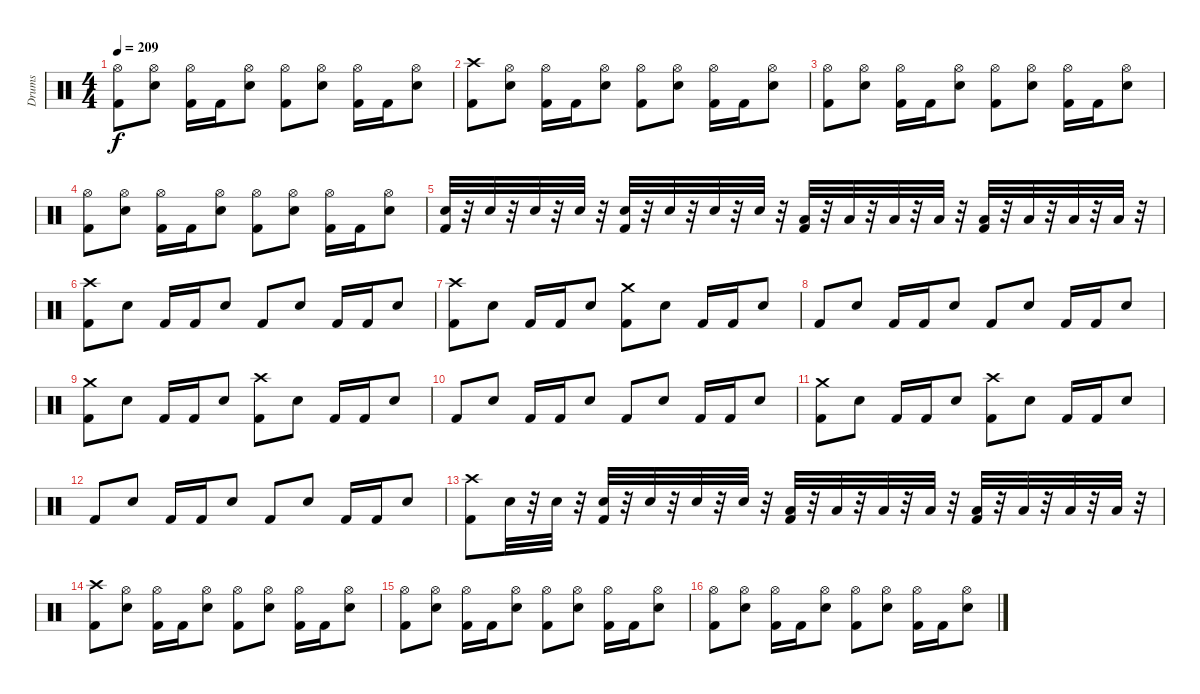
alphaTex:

\track ("Drums" "Drums") {instrument percussion}
\staff {score}
\articulation defaults
\ts (4 4)
\tempo 209
\clef neutral
\ks c
("Kick (hit) 2" "Hi-Hat (open)").8{dy f} ("Hi-Hat (open)" "Electric Snare (hit)").8 ("Kick (hit) 2" "Hi-Hat (open)").16 "Kick (hit) 2".16 ("Hi-Hat (open)" "Electric Snare (hit)").8 ("Kick (hit) 2" "Hi-Hat (open)").8 ("Hi-Hat (open)" "Electric Snare (hit)").8 ("Kick (hit) 2" "Hi-Hat (open)").16 "Kick (hit) 2".16 ("Hi-Hat (open)" "Electric Snare (hit)").8 |
("Crash high (hit)" "Kick (hit) 2").8 ("Hi-Hat (open)" "Electric Snare (hit)").8 ("Kick (hit) 2" "Hi-Hat (open)").16 "Kick (hit) 2".16 ("Hi-Hat (open)" "Electric Snare (hit)").8 ("Kick (hit) 2" "Hi-Hat (open)").8 ("Hi-Hat (open)" "Electric Snare (hit)").8 ("Kick (hit) 2" "Hi-Hat (open)").16 "Kick (hit) 2".16 ("Hi-Hat (open)" "Electric Snare (hit)").8 |
("Kick (hit) 2" "Hi-Hat (open)").8 ("Hi-Hat (open)" "Electric Snare (hit)").8 ("Kick (hit) 2" "Hi-Hat (open)").16 "Kick (hit) 2".16 ("Hi-Hat (open)" "Electric Snare (hit)").8 ("Kick (hit) 2" "Hi-Hat (open)").8 ("Hi-Hat (open)" "Electric Snare (hit)").8 ("Kick (hit) 2" "Hi-Hat (open)").16 "Kick (hit) 2".16 ("Hi-Hat (open)" "Electric Snare (hit)").8 |
("Kick (hit) 2" "Hi-Hat (open)").8 ("Hi-Hat (open)" "Electric Snare (hit)").8 ("Kick (hit) 2" "Hi-Hat (open)").16 "Kick (hit) 2".16 ("Hi-Hat (open)" "Electric Snare (hit)").8 ("Kick (hit) 2" "Hi-Hat (open)").8 ("Hi-Hat (open)" "Electric Snare (hit)").8 ("Kick (hit) 2" "Hi-Hat (open)").16 "Kick (hit) 2".16 ("Hi-Hat (open)" "Electric Snare (hit)").8 |
("Electric Snare (hit)" "Kick (hit) 2").32 r.32 "Electric Snare (hit)".32 r.32 "Electric Snare (hit)".32 r.32 "Electric Snare (hit)".32 r.32 ("Electric Snare (hit)" "Kick (hit) 2").32 r.32 "Electric Snare (hit)".32 r.32 "Electric Snare (hit)".32 r.32 "Electric Snare (hit)".32 r.32 ("Kick (hit) 2" "Low Tom (hit)").32 r.32 "Low Tom (hit)".32 r.32 "Low Tom (hit)".32 r.32 "Low Tom (hit)".32 r.32 ("Kick (hit) 2" "Low Floor Tom (hit)").32 r.32 "Low Floor Tom (hit)".32 r.32 "Low Floor Tom (hit)".32 r.32 "Low Floor Tom (hit)".32 r.32 |
("Crash high (hit)" "Kick (hit) 2").8 "Electric Snare (hit)".8 "Kick (hit) 2".16 "Kick (hit) 2".16 "Electric Snare (hit)".8 "Kick (hit) 2".8 "Electric Snare (hit)".8 "Kick (hit) 2".16 "Kick (hit) 2".16 "Electric Snare (hit)".8 |
("Kick (hit) 2" "Crash high (hit)").8 "Electric Snare (hit)".8 "Kick (hit) 2".16 "Kick (hit) 2".16 "Electric Snare (hit)".8 ("Kick (hit) 2" "Crash medium (hit)").8 "Electric Snare (hit)".8 "Kick (hit) 2".16 "Kick (hit) 2".16 "Electric Snare (hit)".8 |
"Kick (hit) 2".8 "Electric Snare (hit)".8 "Kick (hit) 2".16 "Kick (hit) 2".16 "Electric Snare (hit)".8 "Kick (hit) 2".8 "Electric Snare (hit)".8 "Kick (hit) 2".16 "Kick (hit) 2".16 "Electric Snare (hit)".8 |
("Kick (hit) 2" "Crash medium (hit)").8 "Electric Snare (hit)".8 "Kick (hit) 2".16 "Kick (hit) 2".16 "Electric Snare (hit)".8 ("Kick (hit) 2" "Crash high (hit)").8 "Electric Snare (hit)".8 "Kick (hit) 2".16 "Kick (hit) 2".16 "Electric Snare (hit)".8 |
"Kick (hit) 2".8 "Electric Snare (hit)".8 "Kick (hit) 2".16 "Kick (hit) 2".16 "Electric Snare (hit)".8 "Kick (hit) 2".8 "Electric Snare (hit)".8 "Kick (hit) 2".16 "Kick (hit) 2".16 "Electric Snare (hit)".8 |
("Kick (hit) 2" "Crash medium (hit)").8 "Electric Snare (hit)".8 "Kick (hit) 2".16 "Kick (hit) 2".16 "Electric Snare (hit)".8 ("Kick (hit) 2" "Crash high (hit)").8 "Electric Snare (hit)".8 "Kick (hit) 2".16 "Kick (hit) 2".16 "Electric Snare (hit)".8 |
"Kick (hit) 2".8 "Electric Snare (hit)".8 "Kick (hit) 2".16 "Kick (hit) 2".16 "Electric Snare (hit)".8 "Kick (hit) 2".8 "Electric Snare (hit)".8 "Kick (hit) 2".16 "Kick (hit) 2".16 "Electric Snare (hit)".8 |
("Kick (hit) 2" "Crash high (hit)").8 "Electric Snare (hit)".32 r.32 "Electric Snare (hit)".32 r.32 ("Electric Snare (hit)" "Kick (hit) 2").32 r.32 "Electric Snare (hit)".32 r.32 "Electric Snare (hit)".32 r.32 "Electric Snare (hit)".32 r.32 ("Kick (hit) 2" "Low Tom (hit)").32 r.32 "Low Tom (hit)".32 r.32 "Low Tom (hit)".32 r.32 "Low Tom (hit)".32 r.32 ("Kick (hit) 2" "Low Floor Tom (hit)").32 r.32 "Low Floor Tom (hit)".32 r.32 "Low Floor Tom (hit)".32 r.32 "Low Floor Tom (hit)".32 r.32 |
("Crash high (hit)" "Kick (hit) 2").8 ("Hi-Hat (open)" "Electric Snare (hit)").8 ("Kick (hit) 2" "Hi-Hat (open)").16 "Kick (hit) 2".16 ("Hi-Hat (open)" "Electric Snare (hit)").8 ("Kick (hit) 2" "Hi-Hat (open)").8 ("Hi-Hat (open)" "Electric Snare (hit)").8 ("Kick (hit) 2" "Hi-Hat (open)").16 "Kick (hit) 2".16 ("Hi-Hat (open)" "Electric Snare (hit)").8 |
("Kick (hit) 2" "Hi-Hat (open)").8 ("Hi-Hat (open)" "Electric Snare (hit)").8 ("Kick (hit) 2" "Hi-Hat (open)").16 "Kick (hit) 2".16 ("Hi-Hat (open)" "Electric Snare (hit)").8 ("Kick (hit) 2" "Hi-Hat (open)").8 ("Hi-Hat (open)" "Electric Snare (hit)").8 ("Kick (hit) 2" "Hi-Hat (open)").16 "Kick (hit) 2".16 ("Hi-Hat (open)" "Electric Snare (hit)").8 |
("Kick (hit) 2" "Hi-Hat (open)").8 ("Hi-Hat (open)" "Electric Snare (hit)").8 ("Kick (hit) 2" "Hi-Hat (open)").16 "Kick (hit) 2".16 ("Hi-Hat (open)" "Electric Snare (hit)").8 ("Kick (hit) 2" "Hi-Hat (open)").8 ("Hi-Hat (open)" "Electric Snare (hit)").8 ("Kick (hit) 2" "Hi-Hat (open)").16 "Kick (hit) 2".16 ("Hi-Hat (open)" "Electric Snare (hit)").8
